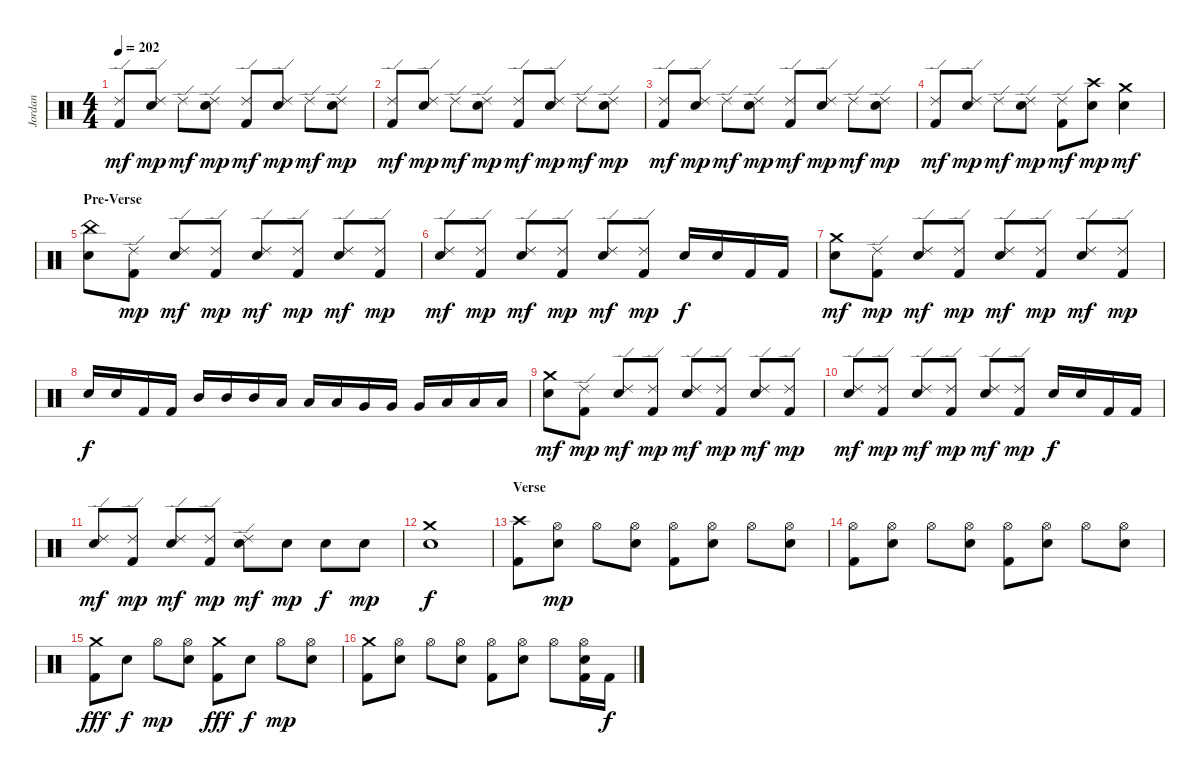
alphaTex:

\track ("Jordan" "Jordan") {instrument percussion}
\staff {score}
\articulation defaults
\ts (4 4)
\tempo 202
\clef neutral
\ks c
("Ride (edge) 2" "Kick (hit) 2").8{dy mf} ("Ride (edge) 2" "Electric Snare (hit)").8{dy mp} "Ride (edge) 2".8{dy mf} ("Ride (edge) 2" "Electric Snare (hit)").8{dy mp} ("Ride (edge) 2" "Kick (hit) 2").8{dy mf} ("Ride (edge) 2" "Electric Snare (hit)").8{dy mp} "Ride (edge) 2".8{dy mf} ("Ride (edge) 2" "Electric Snare (hit)").8{dy mp} |
("Ride (edge) 2" "Kick (hit) 2").8{dy mf} ("Ride (edge) 2" "Electric Snare (hit)").8{dy mp} "Ride (edge) 2".8{dy mf} ("Ride (edge) 2" "Electric Snare (hit)").8{dy mp} ("Ride (edge) 2" "Kick (hit) 2").8{dy mf} ("Ride (edge) 2" "Electric Snare (hit)").8{dy mp} "Ride (edge) 2".8{dy mf} ("Ride (edge) 2" "Electric Snare (hit)").8{dy mp} |
("Ride (edge) 2" "Kick (hit) 2").8{dy mf} ("Ride (edge) 2" "Electric Snare (hit)").8{dy mp} "Ride (edge) 2".8{dy mf} ("Ride (edge) 2" "Electric Snare (hit)").8{dy mp} ("Ride (edge) 2" "Kick (hit) 2").8{dy mf} ("Ride (edge) 2" "Electric Snare (hit)").8{dy mp} "Ride (edge) 2".8{dy mf} ("Ride (edge) 2" "Electric Snare (hit)").8{dy mp} |
("Ride (edge) 2" "Kick (hit) 2").8{dy mf} ("Ride (edge) 2" "Electric Snare (hit)").8{dy mp} "Ride (edge) 2".8{dy mf} ("Ride (edge) 2" "Electric Snare (hit)").8{dy mp} ("Ride (edge) 2" "Kick (hit) 2").8{dy mf} ("Crash high (hit)" "Electric Snare (hit)").8{dy mp} ("Crash medium (hit)" "Electric Snare (hit)").4{dy mf} |
\section ("" "Pre-Verse")
("China (hit)" "Electric Snare (hit)").8 ("Ride (edge) 2" "Kick (hit) 2").8{dy mp} ("Ride (edge) 2" "Electric Snare (hit)").8{dy mf} ("Ride (edge) 2" "Kick (hit) 2").8{dy mp} ("Ride (edge) 2" "Electric Snare (hit)").8{dy mf} ("Ride (edge) 2" "Kick (hit) 2").8{dy mp} ("Ride (edge) 2" "Electric Snare (hit)").8{dy mf} ("Ride (edge) 2" "Kick (hit) 2").8{dy mp} |
("Ride (edge) 2" "Electric Snare (hit)").8{dy mf} ("Ride (edge) 2" "Kick (hit) 2").8{dy mp} ("Ride (edge) 2" "Electric Snare (hit)").8{dy mf} ("Ride (edge) 2" "Kick (hit) 2").8{dy mp} ("Ride (edge) 2" "Electric Snare (hit)").8{dy mf} ("Ride (edge) 2" "Kick (hit) 2").8{dy mp} "Electric Snare (hit)".16{dy f} "Electric Snare (hit)".16 "Kick (hit) 2".16 "Kick (hit) 2".16 |
("Crash medium (hit)" "Electric Snare (hit)").8{dy mf} ("Ride (edge) 2" "Kick (hit) 2").8{dy mp} ("Ride (edge) 2" "Electric Snare (hit)").8{dy mf} ("Ride (edge) 2" "Kick (hit) 2").8{dy mp} ("Ride (edge) 2" "Electric Snare (hit)").8{dy mf} ("Ride (edge) 2" "Kick (hit) 2").8{dy mp} ("Ride (edge) 2" "Electric Snare (hit)").8{dy mf} ("Ride (edge) 2" "Kick (hit) 2").8{dy mp} |
"Electric Snare (hit)".16{dy f} "Electric Snare (hit)".16 "Kick (hit) 2".16 "Kick (hit) 2".16 "Mid Tom (hit)".16 "Mid Tom (hit)".16 "Mid Tom (hit)".16 "Low Tom (hit)".16 "Low Tom (hit)".16 "Low Tom (hit)".16 "Very Low Tom (hit)".16 "Very Low Tom (hit)".16 "Very Low Tom (hit)".16 "Low Floor Tom (hit)".16 "Low Floor Tom (hit)".16 "Low Floor Tom (hit)".16 |
("Crash medium (hit)" "Electric Snare (hit)").8{dy mf} ("Ride (edge) 2" "Kick (hit) 2").8{dy mp} ("Ride (edge) 2" "Electric Snare (hit)").8{dy mf} ("Ride (edge) 2" "Kick (hit) 2").8{dy mp} ("Ride (edge) 2" "Electric Snare (hit)").8{dy mf} ("Ride (edge) 2" "Kick (hit) 2").8{dy mp} ("Ride (edge) 2" "Electric Snare (hit)").8{dy mf} ("Ride (edge) 2" "Kick (hit) 2").8{dy mp} |
("Ride (edge) 2" "Electric Snare (hit)").8{dy mf} ("Ride (edge) 2" "Kick (hit) 2").8{dy mp} ("Ride (edge) 2" "Electric Snare (hit)").8{dy mf} ("Ride (edge) 2" "Kick (hit) 2").8{dy mp} ("Ride (edge) 2" "Electric Snare (hit)").8{dy mf} ("Ride (edge) 2" "Kick (hit) 2").8{dy mp} "Electric Snare (hit)".16{dy f} "Electric Snare (hit)".16 "Kick (hit) 2".16 "Kick (hit) 2".16 |
("Ride (edge) 2" "Electric Snare (hit)").8{dy mf} ("Ride (edge) 2" "Kick (hit) 2").8{dy mp} ("Ride (edge) 2" "Electric Snare (hit)").8{dy mf} ("Ride (edge) 2" "Kick (hit) 2").8{dy mp} ("Ride (edge) 2" "Electric Snare (hit)").8{dy mf} "Electric Snare (hit)".8{dy mp} "Electric Snare (hit)".8{dy f} "Electric Snare (hit)".8{dy mp} |
("Crash medium (hit)" "Electric Snare (hit)").1{dy f} |
\section ("" "Verse")
("Crash high (hit)" "Kick (hit) 2").8 ("Hi-Hat (open)" "Electric Snare (hit)").8{dy mp} "Hi-Hat (open)".8 ("Hi-Hat (open)" "Electric Snare (hit)").8 ("Hi-Hat (open)" "Kick (hit) 2").8 ("Hi-Hat (open)" "Electric Snare (hit)").8 "Hi-Hat (open)".8 ("Hi-Hat (open)" "Electric Snare (hit)").8 |
("Hi-Hat (open)" "Kick (hit) 2").8 ("Hi-Hat (open)" "Electric Snare (hit)").8 "Hi-Hat (open)".8 ("Hi-Hat (open)" "Electric Snare (hit)").8 ("Hi-Hat (open)" "Kick (hit) 2").8 ("Hi-Hat (open)" "Electric Snare (hit)").8 "Hi-Hat (open)".8 ("Hi-Hat (open)" "Electric Snare (hit)").8 |
("Crash medium (hit)" "Kick (hit) 2").8{dy fff} "Electric Snare (hit)".8{dy f} "Hi-Hat (open)".8{dy mp} ("Hi-Hat (open)" "Electric Snare (hit)").8 ("Crash medium (hit)" "Kick (hit) 2").8{dy fff} "Electric Snare (hit)".8{dy f} "Hi-Hat (open)".8{dy mp} ("Hi-Hat (open)" "Electric Snare (hit)").8 |
("Crash medium (hit)" "Kick (hit) 2").8 ("Hi-Hat (open)" "Electric Snare (hit)").8 "Hi-Hat (open)".8 ("Hi-Hat (open)" "Electric Snare (hit)").8 ("Hi-Hat (open)" "Kick (hit) 2").8 ("Hi-Hat (open)" "Electric Snare (hit)").8 "Hi-Hat (open)".8 ("Hi-Hat (open)" "Electric Snare (hit)" "Kick (hit) 2").16 "Kick (hit) 2".16{dy f}
